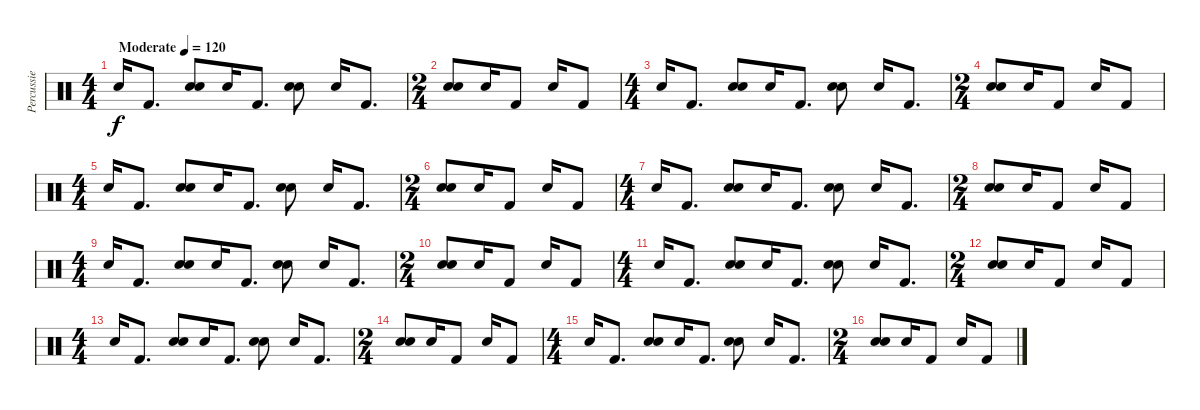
\track ("Percussie" "Percussie") {instrument percussion}
\staff {score}
\articulation defaults
\ts (4 4)
\tempo (120 "Moderate")
\clef neutral
\ks c "Snare (hit) 2".16{dy f} "Kick (hit) 2".8{d}
("Hand Clap (hit)" "Snare (hit) 2").8 "Snare (hit) 2".16 "Kick (hit) 2".8{d} ("Hand Clap (hit)" "Snare (hit) 2").8 "Snare (hit) 2".16 "Kick (hit) 2".8{d} |
\ts (2 4)
("Hand Clap (hit)" "Snare (hit) 2").8 "Snare (hit) 2".16 "Kick (hit) 2".8 "Snare (hit) 2".16 "Kick (hit) 2".8 |
\ts (4 4)
"Snare (hit) 2".16 "Kick (hit) 2".8{d} ("Hand Clap (hit)" "Snare (hit) 2").8 "Snare (hit) 2".16 "Kick (hit) 2".8{d} ("Hand Clap (hit)" "Snare (hit) 2").8 "Snare (hit) 2".16 "Kick (hit) 2".8{d} |
\ts (2 4)
("Hand Clap (hit)" "Snare (hit) 2").8 "Snare (hit) 2".16 "Kick (hit) 2".8 "Snare (hit) 2".16 "Kick (hit) 2".8 |
\ts (4 4)
"Snare (hit) 2".16 "Kick (hit) 2".8{d} ("Hand Clap (hit)" "Snare (hit) 2").8 "Snare (hit) 2".16 "Kick (hit) 2".8{d} ("Hand Clap (hit)" "Snare (hit) 2").8 "Snare (hit) 2".16 "Kick (hit) 2".8{d} |
\ts (2 4)
("Hand Clap (hit)" "Snare (hit) 2").8 "Snare (hit) 2".16 "Kick (hit) 2".8 "Snare (hit) 2".16 "Kick (hit) 2".8 |
\ts (4 4)
"Snare (hit) 2".16 "Kick (hit) 2".8{d} ("Hand Clap (hit)" "Snare (hit) 2").8 "Snare (hit) 2".16 "Kick (hit) 2".8{d} ("Hand Clap (hit)" "Snare (hit) 2").8 "Snare (hit) 2".16 "Kick (hit) 2".8{d} |
\ts (2 4)
("Hand Clap (hit)" "Snare (hit) 2").8 "Snare (hit) 2".16 "Kick (hit) 2".8 "Snare (hit) 2".16 "Kick (hit) 2".8 |
\ts (4 4)
"Snare (hit) 2".16 "Kick (hit) 2".8{d} ("Hand Clap (hit)" "Snare (hit) 2").8 "Snare (hit) 2".16 "Kick (hit) 2".8{d} ("Hand Clap (hit)" "Snare (hit) 2").8 "Snare (hit) 2".16 "Kick (hit) 2".8{d} |
\ts (2 4)
("Hand Clap (hit)" "Snare (hit) 2").8 "Snare (hit) 2".16 "Kick (hit) 2".8 "Snare (hit) 2".16 "Kick (hit) 2".8 |
\ts (4 4)
"Snare (hit) 2".16 "Kick (hit) 2".8{d} ("Hand Clap (hit)" "Snare (hit) 2").8 "Snare (hit) 2".16 "Kick (hit) 2".8{d} ("Hand Clap (hit)" "Snare (hit) 2").8 "Snare (hit) 2".16 "Kick (hit) 2".8{d} |
\ts (2 4)
("Hand Clap (hit)" "Snare (hit) 2").8 "Snare (hit) 2".16 "Kick (hit) 2".8 "Snare (hit) 2".16 "Kick (hit) 2".8 |
\ts (4 4)
"Snare (hit) 2".16 "Kick (hit) 2".8{d} ("Hand Clap (hit)" "Snare (hit) 2").8 "Snare (hit) 2".16 "Kick (hit) 2".8{d} ("Hand Clap (hit)" "Snare (hit) 2").8 "Snare (hit) 2".16 "Kick (hit) 2".8{d} |
\ts (2 4)
("Hand Clap (hit)" "Snare (hit) 2").8 "Snare (hit) 2".16 "Kick (hit) 2".8 "Snare (hit) 2".16 "Kick (hit) 2".8 |
\ts (4 4)
"Snare (hit) 2".16 "Kick (hit) 2".8{d} ("Hand Clap (hit)" "Snare (hit) 2").8 "Snare (hit) 2".16 "Kick (hit) 2".8{d} ("Hand Clap (hit)" "Snare (hit) 2").8 "Snare (hit) 2".16 "Kick (hit) 2".8{d} |
\ts (2 4)
("Hand Clap (hit)" "Snare (hit) 2").8 "Snare (hit) 2".16 "Kick (hit) 2".8 "Snare (hit) 2".16 "Kick (hit) 2".8
